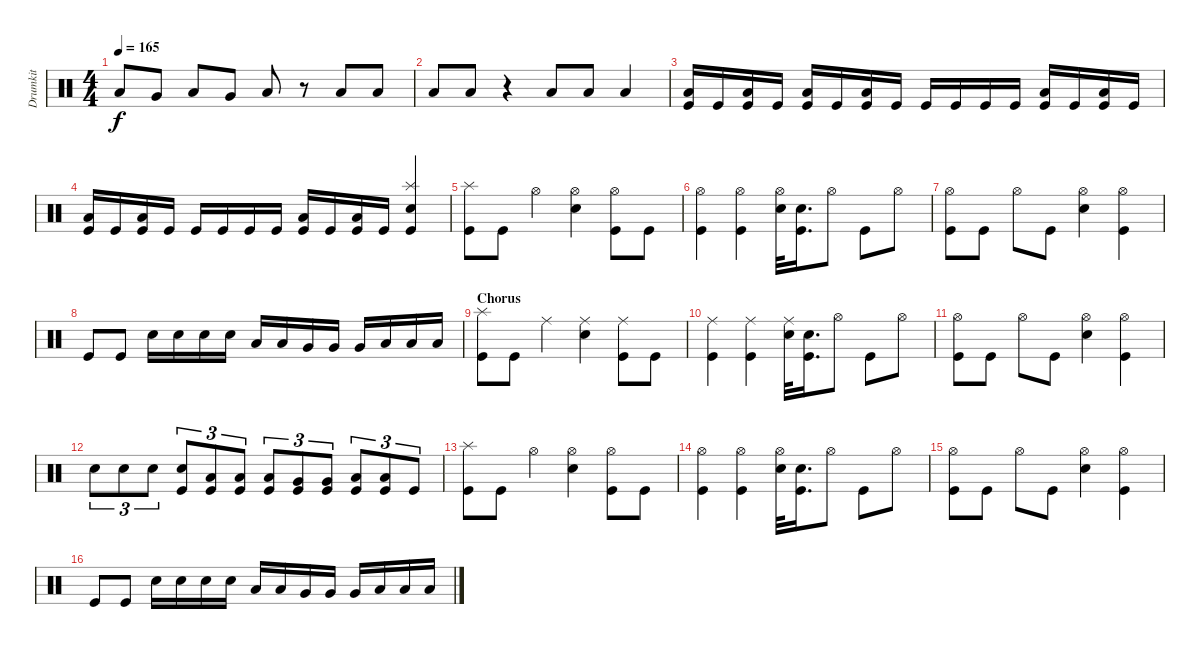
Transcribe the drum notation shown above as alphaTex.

\track ("Drumkit" "Drumkit") {instrument percussion}
\staff {score}
\articulation defaults
\ts (4 4)
\tempo 165
\clef neutral
\ks c "Low Floor Tom (hit)".8{dy f} "Very Low Tom (hit)".8 "Low Floor Tom (hit)".8 "Very Low Tom (hit)".8 "Low Floor Tom (hit)".8
r.8 "Low Floor Tom (hit)".8 "Low Floor Tom (hit)".8 |
"Low Floor Tom (hit)".8 "Low Floor Tom (hit)".8 r.4 "Low Floor Tom (hit)".8 "Low Floor Tom (hit)".8 "Low Floor Tom (hit)".4 |
("Low Floor Tom (hit)" "Kick (hit)").16 "Kick (hit)".16 ("Low Floor Tom (hit)" "Kick (hit)").16 "Kick (hit)".16 ("Low Floor Tom (hit)" "Kick (hit)").16 "Kick (hit)".16 ("Low Floor Tom (hit)" "Kick (hit)").16 "Kick (hit)".16 "Kick (hit)".16 "Kick (hit)".16 "Kick (hit)".16 "Kick (hit)".16 ("Low Floor Tom (hit)" "Kick (hit)").16 "Kick (hit)".16 ("Low Floor Tom (hit)" "Kick (hit)").16 "Kick (hit)".16 |
("Low Floor Tom (hit)" "Kick (hit)").16 "Kick (hit)".16 ("Low Floor Tom (hit)" "Kick (hit)").16 "Kick (hit)".16 "Kick (hit)".16 "Kick (hit)".16 "Kick (hit)".16 "Kick (hit)".16 ("Low Floor Tom (hit)" "Kick (hit)").16 "Kick (hit)".16 ("Low Floor Tom (hit)" "Kick (hit)").16 "Kick (hit)".16 ("Splash (hit)" "Snare (hit) 2" "Kick (hit)").4 |
("Splash (hit)" "Kick (hit)").8 "Kick (hit)".8 "Hi-Hat (open)".4 ("Hi-Hat (open)" "Snare (hit) 2").4 ("Hi-Hat (open)" "Kick (hit)").8 "Kick (hit)".8 |
("Hi-Hat (open)" "Kick (hit)").4 ("Hi-Hat (open)" "Kick (hit)").4 ("Hi-Hat (open)" "Snare (hit) 2").32 ("Snare (hit) 2" "Kick (hit)").16{d} "Hi-Hat (open)".8 "Kick (hit)".8 "Hi-Hat (open)".8 |
("Hi-Hat (open)" "Kick (hit)").8 "Kick (hit)".8 "Hi-Hat (open)".8 "Kick (hit)".8 ("Hi-Hat (open)" "Snare (hit) 2").4 ("Hi-Hat (open)" "Kick (hit)").4 |
"Kick (hit)".8 "Kick (hit)".8 "Snare (hit) 2".16 "Snare (hit) 2".16 "Snare (hit) 2".16 "Snare (hit) 2".16 "Low Tom (hit)".16 "Low Tom (hit)".16 "Very Low Tom (hit)".16 "Very Low Tom (hit)".16 "Very Low Tom (hit)".16 "Low Floor Tom (hit)".16 "Low Floor Tom (hit)".16 "Low Floor Tom (hit)".16 |
\section ("" "Chorus")
("Splash (hit)" "Kick (hit)").8 "Kick (hit)".8 "Ride (middle)".4 ("Ride (middle)" "Snare (hit) 2").4 ("Ride (middle)" "Kick (hit)").8 "Kick (hit)".8 |
("Ride (middle)" "Kick (hit)").4 ("Ride (middle)" "Kick (hit)").4 ("Ride (middle)" "Snare (hit) 2").32 ("Snare (hit) 2" "Kick (hit)").16{d} "Hi-Hat (open)".8 "Kick (hit)".8 "Hi-Hat (open)".8 |
("Hi-Hat (open)" "Kick (hit)").8 "Kick (hit)".8 "Hi-Hat (open)".8 "Kick (hit)".8 ("Hi-Hat (open)" "Snare (hit) 2").4 ("Hi-Hat (open)" "Kick (hit)").4 |
"Snare (hit) 2".8{tu (3 2)} "Snare (hit) 2".8{tu (3 2)} "Snare (hit) 2".8{tu (3 2)} ("Snare (hit) 2" "Kick (hit)").8{tu (3 2)} ("Low Tom (hit)" "Kick (hit)").8{tu (3 2)} ("Low Tom (hit)" "Kick (hit)").8{tu (3 2)} ("Low Tom (hit)" "Kick (hit)").8{tu (3 2)} ("Very Low Tom (hit)" "Kick (hit)").8{tu (3 2)} ("Very Low Tom (hit)" "Kick (hit)").8{tu (3 2)} ("Low Floor Tom (hit)" "Kick (hit)").8{tu (3 2)} ("Low Floor Tom (hit)" "Kick (hit)").8{tu (3 2)} "Kick (hit)".8{tu (3 2)} |
("Splash (hit)" "Kick (hit)").8 "Kick (hit)".8 "Hi-Hat (open)".4 ("Hi-Hat (open)" "Snare (hit) 2").4 ("Hi-Hat (open)" "Kick (hit)").8 "Kick (hit)".8 |
("Hi-Hat (open)" "Kick (hit)").4 ("Hi-Hat (open)" "Kick (hit)").4 ("Hi-Hat (open)" "Snare (hit) 2").32 ("Snare (hit) 2" "Kick (hit)").16{d} "Hi-Hat (open)".8 "Kick (hit)".8 "Hi-Hat (open)".8 |
("Hi-Hat (open)" "Kick (hit)").8 "Kick (hit)".8 "Hi-Hat (open)".8 "Kick (hit)".8 ("Hi-Hat (open)" "Snare (hit) 2").4 ("Hi-Hat (open)" "Kick (hit)").4 |
"Kick (hit)".8 "Kick (hit)".8 "Snare (hit) 2".16 "Snare (hit) 2".16 "Snare (hit) 2".16 "Snare (hit) 2".16 "Low Tom (hit)".16 "Low Tom (hit)".16 "Very Low Tom (hit)".16 "Very Low Tom (hit)".16 "Very Low Tom (hit)".16 "Low Floor Tom (hit)".16 "Low Floor Tom (hit)".16 "Low Floor Tom (hit)".16
